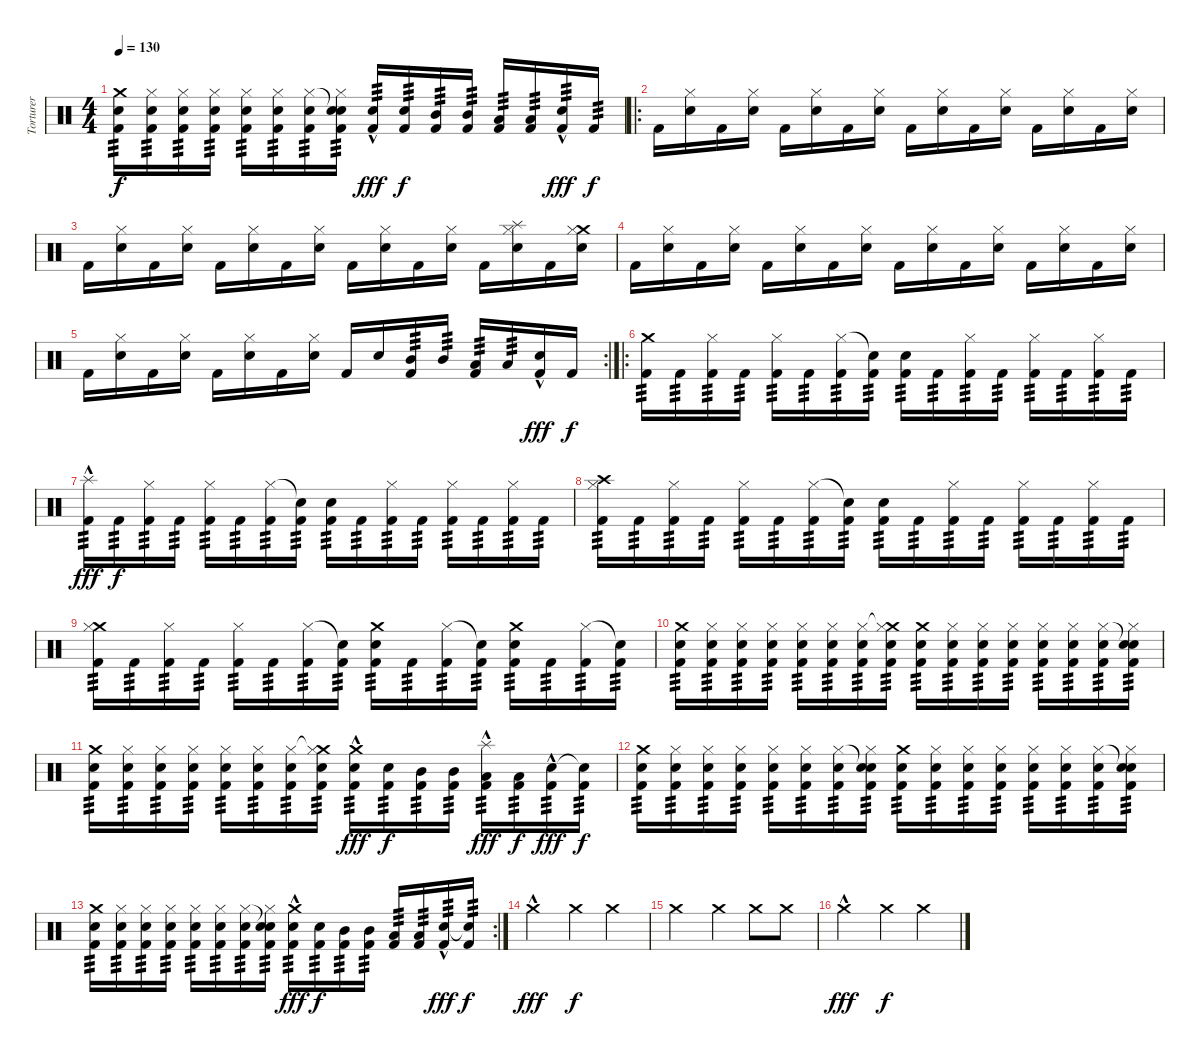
\track ("Torturer" "Torturer") {instrument percussion}
\staff {score}
\articulation defaults
\ts (4 4)
\tempo 130
\clef neutral
\ks c
("Crash medium (hit)" "Snare (hit) 2" "Kick (hit) 2").16{tp 3 dy f} ("Hi-Hat (closed)" "Snare (hit) 2" "Kick (hit) 2").16{tp 3} ("Hi-Hat (closed)" "Snare (hit) 2" "Kick (hit) 2").16{tp 3} ("Hi-Hat (closed)" "Snare (hit) 2" "Kick (hit) 2").16{tp 3} ("Hi-Hat (closed)" "Snare (hit) 2" "Kick (hit) 2").16{tp 3} ("Hi-Hat (closed)" "Snare (hit) 2" "Kick (hit) 2").16{tp 3} ("Hi-Hat (closed)" "Snare (hit) 2" "Kick (hit) 2").16{tp 3} ("Snare (hit)"{t} "Hi-Hat (closed)" "Snare (hit) 2" "Kick (hit) 2").16{tp 3} ("Snare (hit) 2"{hac} "Kick (hit) 2").16{tp 3 dy fff} ("Snare (hit) 2" "Kick (hit) 2").16{tp 3 dy f} ("Mid Tom (hit)" "Kick (hit) 2").16{tp 3} ("Mid Tom (hit)" "Kick (hit) 2").16{tp 3} ("Low Tom (hit)" "Kick (hit) 2").16{tp 3} ("Low Tom (hit)" "Kick (hit) 2").16{tp 3} ("Snare (hit) 2"{hac} "Kick (hit) 2").16{tp 3 dy fff} "Kick (hit) 2".16{tp 3 dy f} |
\ro "Kick (hit) 2".16
("Hi-Hat (closed)" "Snare (hit) 2").16 "Kick (hit) 2".16 ("Hi-Hat (closed)" "Snare (hit) 2").16 "Kick (hit) 2".16 ("Hi-Hat (closed)" "Snare (hit) 2").16 "Kick (hit) 2".16 ("Hi-Hat (closed)" "Snare (hit) 2").16 "Kick (hit) 2".16 ("Hi-Hat (closed)" "Snare (hit) 2").16 "Kick (hit) 2".16 ("Hi-Hat (closed)" "Snare (hit) 2").16 "Kick (hit) 2".16 ("Hi-Hat (closed)" "Snare (hit) 2").16 "Kick (hit) 2".16 ("Hi-Hat (closed)" "Snare (hit) 2").16 |
"Kick (hit) 2".16 ("Hi-Hat (closed)" "Snare (hit) 2").16 "Kick (hit) 2".16 ("Hi-Hat (closed)" "Snare (hit) 2").16 "Kick (hit) 2".16 ("Hi-Hat (closed)" "Snare (hit) 2").16 "Kick (hit) 2".16 ("Hi-Hat (closed)" "Snare (hit) 2").16 "Kick (hit) 2".16 ("Hi-Hat (closed)" "Snare (hit) 2").16 "Kick (hit) 2".16 ("Hi-Hat (closed)" "Snare (hit) 2").16 "Kick (hit) 2".16 ("Splash (hit)" "Hi-Hat (closed)" "Snare (hit) 2").16 "Kick (hit) 2".16 ("Crash medium (hit)" "Hi-Hat (closed)" "Snare (hit) 2").16 |
"Kick (hit) 2".16 ("Hi-Hat (closed)" "Snare (hit) 2").16 "Kick (hit) 2".16 ("Hi-Hat (closed)" "Snare (hit) 2").16 "Kick (hit) 2".16 ("Hi-Hat (closed)" "Snare (hit) 2").16 "Kick (hit) 2".16 ("Hi-Hat (closed)" "Snare (hit) 2").16 "Kick (hit) 2".16 ("Hi-Hat (closed)" "Snare (hit) 2").16 "Kick (hit) 2".16 ("Hi-Hat (closed)" "Snare (hit) 2").16 "Kick (hit) 2".16 ("Hi-Hat (closed)" "Snare (hit) 2").16 "Kick (hit) 2".16 ("Hi-Hat (closed)" "Snare (hit) 2").16 |
\rc 2 "Kick (hit) 2".16
("Hi-Hat (closed)" "Snare (hit) 2").16 "Kick (hit) 2".16 ("Hi-Hat (closed)" "Snare (hit) 2").16 "Kick (hit) 2".16 ("Hi-Hat (closed)" "Snare (hit) 2").16 "Kick (hit) 2".16 ("Hi-Hat (closed)" "Snare (hit) 2").16 "Kick (hit) 2".16 "Snare (hit) 2".16 ("Mid Tom (hit)" "Kick (hit) 2").16{tp 3} "Mid Tom (hit)".16{tp 3} ("Low Tom (hit)" "Kick (hit) 2").16{tp 3} "Low Tom (hit)".16{tp 3} ("Snare (hit) 2"{hac} "Kick (hit) 2").16{dy fff} "Kick (hit) 2".16{dy f} |
\ro
("Crash medium (hit)" "Kick (hit) 2").16{tp 3} "Kick (hit) 2".16{tp 3} ("Hi-Hat (closed)" "Kick (hit) 2").16{tp 3} "Kick (hit) 2".16{tp 3} ("Hi-Hat (closed)" "Kick (hit) 2").16{tp 3} "Kick (hit) 2".16{tp 3} ("Hi-Hat (closed)" "Kick (hit) 2").16{tp 3} ("Snare (hit)"{t} "Kick (hit) 2").16{tp 3} ("Snare (hit) 2" "Kick (hit) 2").16{tp 3} "Kick (hit) 2".16{tp 3} ("Hi-Hat (closed)" "Kick (hit) 2").16{tp 3} "Kick (hit) 2".16{tp 3} ("Hi-Hat (closed)" "Kick (hit) 2").16{tp 3} "Kick (hit) 2".16{tp 3} ("Hi-Hat (closed)" "Kick (hit) 2").16{tp 3} "Kick (hit) 2".16{tp 3} |
("Splash (hit)"{hac} "Kick (hit) 2").16{tp 3 dy fff} "Kick (hit) 2".16{tp 3 dy f} ("Hi-Hat (closed)" "Kick (hit) 2").16{tp 3} "Kick (hit) 2".16{tp 3} ("Hi-Hat (closed)" "Kick (hit) 2").16{tp 3} "Kick (hit) 2".16{tp 3} ("Hi-Hat (closed)" "Kick (hit) 2").16{tp 3} ("Snare (hit)"{t} "Kick (hit) 2").16{tp 3} ("Snare (hit) 2" "Kick (hit) 2").16{tp 3} "Kick (hit) 2".16{tp 3} ("Hi-Hat (closed)" "Kick (hit) 2").16{tp 3} "Kick (hit) 2".16{tp 3} ("Hi-Hat (closed)" "Kick (hit) 2").16{tp 3} "Kick (hit) 2".16{tp 3} ("Hi-Hat (closed)" "Kick (hit) 2").16{tp 3} "Kick (hit) 2".16{tp 3} |
("Crash high (hit)" "Hi-Hat (closed)" "Kick (hit) 2").16{tp 3} "Kick (hit) 2".16{tp 3} ("Hi-Hat (closed)" "Kick (hit) 2").16{tp 3} "Kick (hit) 2".16{tp 3} ("Hi-Hat (closed)" "Kick (hit) 2").16{tp 3} "Kick (hit) 2".16{tp 3} ("Hi-Hat (closed)" "Kick (hit) 2").16{tp 3} ("Snare (hit)"{t} "Kick (hit) 2").16{tp 3} ("Snare (hit) 2" "Kick (hit) 2").16{tp 3} "Kick (hit) 2".16{tp 3} ("Hi-Hat (closed)" "Kick (hit) 2").16{tp 3} "Kick (hit) 2".16{tp 3} ("Hi-Hat (closed)" "Kick (hit) 2").16{tp 3} "Kick (hit) 2".16{tp 3} ("Hi-Hat (closed)" "Kick (hit) 2").16{tp 3} "Kick (hit) 2".16{tp 3} |
("Crash medium (hit)" "Hi-Hat (closed)" "Kick (hit) 2").16{tp 3} "Kick (hit) 2".16{tp 3} ("Hi-Hat (closed)" "Kick (hit) 2").16{tp 3} "Kick (hit) 2".16{tp 3} ("Hi-Hat (closed)" "Kick (hit) 2").16{tp 3} "Kick (hit) 2".16{tp 3} ("Hi-Hat (closed)" "Kick (hit) 2").16{tp 3} ("Snare (hit)"{t} "Kick (hit) 2").16{tp 3} ("Crash medium (hit)" "Snare (hit) 2" "Kick (hit) 2").16{tp 3} "Kick (hit) 2".16{tp 3} ("Hi-Hat (closed)" "Kick (hit) 2").16{tp 3} ("Snare (hit)"{t} "Kick (hit) 2").16{tp 3} ("Crash medium (hit)" "Snare (hit) 2" "Kick (hit) 2").16{tp 3} "Kick (hit) 2".16{tp 3} ("Hi-Hat (closed)" "Kick (hit) 2").16{tp 3} ("Snare (hit)"{t} "Kick (hit) 2").16{tp 3} |
("Crash medium (hit)" "Snare (hit) 2" "Kick (hit) 2").16{tp 3} ("Hi-Hat (closed)" "Snare (hit) 2" "Kick (hit) 2").16{tp 3} ("Hi-Hat (closed)" "Snare (hit) 2" "Kick (hit) 2").16{tp 3} ("Hi-Hat (closed)" "Snare (hit) 2" "Kick (hit) 2").16{tp 3} ("Hi-Hat (closed)" "Snare (hit) 2" "Kick (hit) 2").16{tp 3} ("Hi-Hat (closed)" "Snare (hit) 2" "Kick (hit) 2").16{tp 3} ("Hi-Hat (closed)" "Snare (hit) 2" "Kick (hit) 2").16{tp 3} ("Crash medium (hit)"{t} "Hi-Hat (closed)" "Snare (hit) 2" "Kick (hit) 2").16{tp 3} ("Crash medium (hit)" "Snare (hit) 2" "Kick (hit) 2").16{tp 3} ("Hi-Hat (closed)" "Snare (hit) 2" "Kick (hit) 2").16{tp 3} ("Hi-Hat (closed)" "Snare (hit) 2" "Kick (hit) 2").16{tp 3} ("Hi-Hat (closed)" "Snare (hit) 2" "Kick (hit) 2").16{tp 3} ("Hi-Hat (closed)" "Snare (hit) 2" "Kick (hit) 2").16{tp 3} ("Hi-Hat (closed)" "Snare (hit) 2" "Kick (hit) 2").16{tp 3} ("Hi-Hat (closed)" "Snare (hit) 2" "Kick (hit) 2").16{tp 3} ("Snare (hit)"{t} "Hi-Hat (closed)" "Snare (hit) 2" "Kick (hit) 2").16{tp 3} |
("Crash medium (hit)" "Snare (hit) 2" "Kick (hit) 2").16{tp 3} ("Hi-Hat (closed)" "Snare (hit) 2" "Kick (hit) 2").16{tp 3} ("Hi-Hat (closed)" "Snare (hit) 2" "Kick (hit) 2").16{tp 3} ("Hi-Hat (closed)" "Snare (hit) 2" "Kick (hit) 2").16{tp 3} ("Hi-Hat (closed)" "Snare (hit) 2" "Kick (hit) 2").16{tp 3} ("Hi-Hat (closed)" "Snare (hit) 2" "Kick (hit) 2").16{tp 3} ("Hi-Hat (closed)" "Snare (hit) 2" "Kick (hit) 2").16{tp 3} ("Crash medium (hit)"{t} "Hi-Hat (closed)" "Snare (hit) 2" "Kick (hit) 2").16{tp 3} ("Crash medium (hit)" "Snare (hit) 2"{hac} "Kick (hit) 2").16{tp 3 dy fff} ("Snare (hit) 2" "Kick (hit) 2").16{tp 3 dy f} ("Mid Tom (hit)" "Kick (hit) 2").16{tp 3} ("Mid Tom (hit)" "Kick (hit) 2").16{tp 3} ("Splash (hit)"{hac} "Low Tom (hit)" "Kick (hit) 2").16{tp 3 dy fff} ("Low Tom (hit)" "Kick (hit) 2").16{tp 3 dy f} ("Snare (hit) 2"{hac} "Kick (hit) 2").16{tp 3 dy fff} ("Snare (hit)"{t} "Kick (hit) 2").16{tp 3 dy f} |
("Crash medium (hit)" "Snare (hit) 2" "Kick (hit) 2").16{tp 3} ("Hi-Hat (closed)" "Snare (hit) 2" "Kick (hit) 2").16{tp 3} ("Hi-Hat (closed)" "Snare (hit) 2" "Kick (hit) 2").16{tp 3} ("Hi-Hat (closed)" "Snare (hit) 2" "Kick (hit) 2").16{tp 3} ("Hi-Hat (closed)" "Snare (hit) 2" "Kick (hit) 2").16{tp 3} ("Hi-Hat (closed)" "Snare (hit) 2" "Kick (hit) 2").16{tp 3} ("Hi-Hat (closed)" "Snare (hit) 2" "Kick (hit) 2").16{tp 3} ("Snare (hit)"{t} "Hi-Hat (closed)" "Snare (hit) 2" "Kick (hit) 2").16{tp 3} ("Crash medium (hit)" "Snare (hit) 2" "Kick (hit) 2").16{tp 3} ("Hi-Hat (closed)" "Snare (hit) 2" "Kick (hit) 2").16{tp 3} ("Hi-Hat (closed)" "Snare (hit) 2" "Kick (hit) 2").16{tp 3} ("Hi-Hat (closed)" "Snare (hit) 2" "Kick (hit) 2").16{tp 3} ("Hi-Hat (closed)" "Snare (hit) 2" "Kick (hit) 2").16{tp 3} ("Hi-Hat (closed)" "Snare (hit) 2" "Kick (hit) 2").16{tp 3} ("Hi-Hat (closed)" "Snare (hit) 2" "Kick (hit) 2").16{tp 3} ("Snare (hit)"{t} "Hi-Hat (closed)" "Snare (hit) 2" "Kick (hit) 2").16{tp 3} |
\rc 2
("Crash medium (hit)" "Snare (hit) 2" "Kick (hit) 2").16{tp 3} ("Hi-Hat (closed)" "Snare (hit) 2" "Kick (hit) 2").16{tp 3} ("Hi-Hat (closed)" "Snare (hit) 2" "Kick (hit) 2").16{tp 3} ("Hi-Hat (closed)" "Snare (hit) 2" "Kick (hit) 2").16{tp 3} ("Hi-Hat (closed)" "Snare (hit) 2" "Kick (hit) 2").16{tp 3} ("Hi-Hat (closed)" "Snare (hit) 2" "Kick (hit) 2").16{tp 3} ("Hi-Hat (closed)" "Snare (hit) 2" "Kick (hit) 2").16{tp 3} ("Snare (hit)"{t} "Hi-Hat (closed)" "Snare (hit) 2" "Kick (hit) 2").16{tp 3} ("Crash medium (hit)" "Snare (hit) 2"{hac} "Kick (hit) 2").16{tp 3 dy fff} ("Snare (hit) 2" "Kick (hit) 2").16{tp 3 dy f} ("Mid Tom (hit)" "Kick (hit) 2").16{tp 3} ("Mid Tom (hit)" "Kick (hit) 2").16{tp 3} ("Low Tom (hit)" "Kick (hit) 2").16{tp 3} ("Low Tom (hit)" "Kick (hit) 2").16{tp 3} ("Snare (hit) 2"{hac} "Kick (hit) 2").16{tp 3 dy fff} ("Snare (hit)"{t} "Kick (hit) 2").16{tp 3 dy f} |
"Crash medium (hit)"{hac}.2{dy fff} "Crash medium (hit)".4{dy f} "Crash medium (hit)".4 |
"Crash medium (hit)".2 "Crash medium (hit)".4 "Crash medium (hit)".8 "Crash medium (hit)".8 |
"Crash medium (hit)"{hac}.2{dy fff} "Crash medium (hit)".4{dy f} "Crash medium (hit)".4
